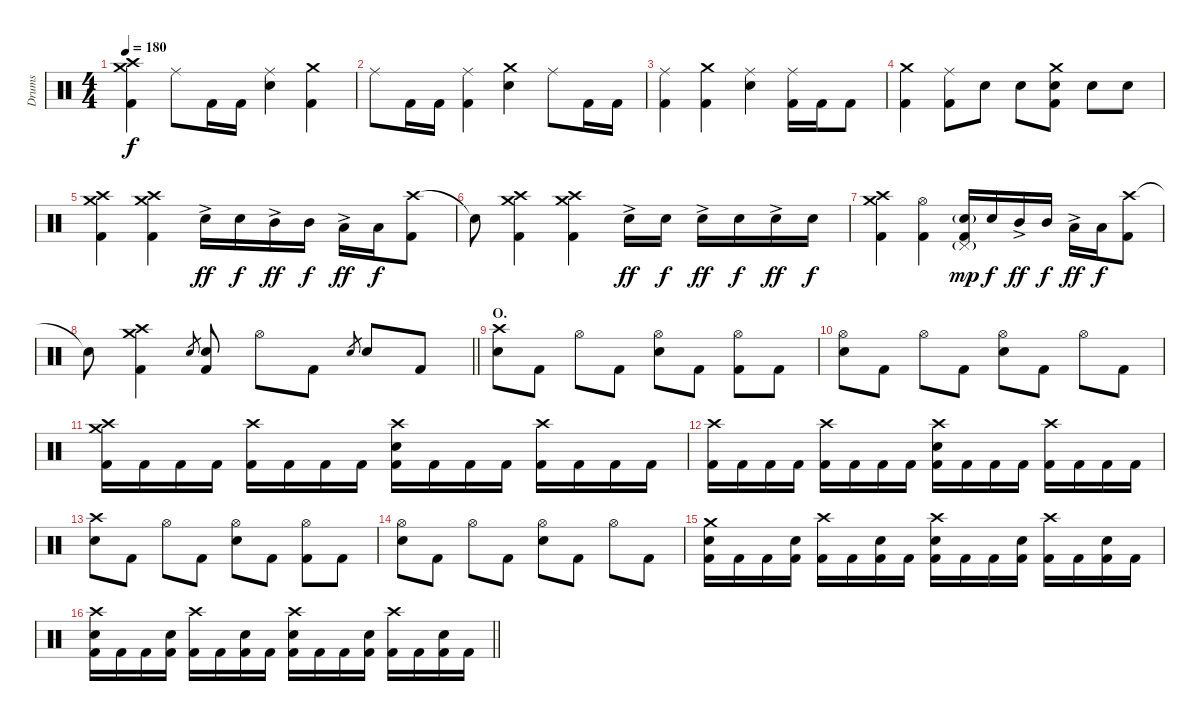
\track ("Drums" "Drums") {instrument percussion}
\staff {score}
\articulation defaults
\ts (4 4)
\tempo 180
\clef neutral
\ks c
("Crash medium (hit)" "Crash high (hit)" "Kick (hit) 2").4{dy f} "Ride (middle)".8 "Kick (hit) 2".16 "Kick (hit) 2".16 ("Ride (middle)" "Electric Snare (hit)").4 ("Crash medium (hit)" "Kick (hit) 2").4 |
"Ride (middle)".8 "Kick (hit) 2".16 "Kick (hit) 2".16 ("Ride (middle)" "Kick (hit) 2").4 ("Crash medium (hit)" "Electric Snare (hit)").4 "Ride (middle)".8 "Kick (hit) 2".16 "Kick (hit) 2".16 |
("Ride (middle)" "Kick (hit) 2").4 ("Crash medium (hit)" "Kick (hit) 2").4 ("Ride (middle)" "Electric Snare (hit)").4 ("Ride (middle)" "Kick (hit) 2").16 "Kick (hit) 2".16 "Kick (hit) 2".8 |
("Crash medium (hit)" "Kick (hit) 2").4 ("Ride (middle)" "Kick (hit) 2").8 "Electric Snare (hit)".8 "Electric Snare (hit)".8 ("Crash medium (hit)" "Electric Snare (hit)" "Kick (hit) 2").8 "Electric Snare (hit)".8 "Electric Snare (hit)".8 |
("Crash medium (hit)" "Crash high (hit)" "Kick (hit) 2").4 ("Crash medium (hit)" "Crash high (hit)" "Kick (hit) 2").4 "Electric Snare (hit)"{ac}.16{dy ff} "Electric Snare (hit)".16{dy f} "Mid Tom (hit)"{ac}.16{dy ff} "Mid Tom (hit)".16{dy f} "Low Tom (hit)"{ac}.16{dy ff} "Low Tom (hit)".16{dy f} ("Crash high (hit)" "Kick (hit) 2").8 |
"Snare (hit)"{t}.8 ("Crash medium (hit)" "Crash high (hit)" "Kick (hit) 2").4 ("Crash medium (hit)" "Crash high (hit)" "Kick (hit) 2").4 "Electric Snare (hit)"{ac}.16{dy ff} "Electric Snare (hit)".16{dy f} "Electric Snare (hit)"{ac}.16{dy ff} "Electric Snare (hit)".16{dy f} "Electric Snare (hit)"{ac}.16{dy ff} "Electric Snare (hit)".16{dy f} |
("Crash medium (hit)" "Crash high (hit)" "Kick (hit) 2").4 ("Hi-Hat (open)" "Kick (hit) 2").4 ("Pedal Hi-Hat (hit)"{g} "Electric Snare (hit)"{g} "Kick (hit) 2").16{dy mp} "Electric Snare (hit)".16{dy f} "Mid Tom (hit)"{ac}.16{dy ff} "Mid Tom (hit)".16{dy f} "Low Tom (hit)"{ac}.16{dy ff} "Low Tom (hit)".16{dy f} ("Crash high (hit)" "Kick (hit) 2").8 |
\barLineRight lightlight "Snare (hit)"{t}.8
("Crash medium (hit)" "Crash high (hit)" "Kick (hit) 2").4 "Electric Snare (hit)".8{gr} ("Electric Snare (hit)" "Kick (hit) 2").8 "Hi-Hat (open)".8 "Kick (hit) 2".8 "Electric Snare (hit)".8{gr} "Electric Snare (hit)".8 "Kick (hit) 2".8 |
\section ("" "O.")
("Crash high (hit)" "Electric Snare (hit)").8 "Kick (hit) 2".8 "Hi-Hat (open)".8 "Kick (hit) 2".8 ("Hi-Hat (open)" "Electric Snare (hit)").8 "Kick (hit) 2".8 ("Hi-Hat (open)" "Kick (hit) 2").8 "Kick (hit) 2".8 |
("Hi-Hat (open)" "Electric Snare (hit)").8 "Kick (hit) 2".8 "Hi-Hat (open)".8 "Kick (hit) 2".8 ("Hi-Hat (open)" "Electric Snare (hit)").8 "Kick (hit) 2".8 "Hi-Hat (open)".8 "Kick (hit) 2".8 |
("Crash medium (hit)" "Crash high (hit)" "Kick (hit) 2").16 "Kick (hit) 2".16 "Kick (hit) 2".16 "Kick (hit) 2".16 ("Crash high (hit)" "Kick (hit) 2").16 "Kick (hit) 2".16 "Kick (hit) 2".16 "Kick (hit) 2".16 ("Crash high (hit)" "Electric Snare (hit)" "Kick (hit) 2").16 "Kick (hit) 2".16 "Kick (hit) 2".16 "Kick (hit) 2".16 ("Crash high (hit)" "Kick (hit) 2").16 "Kick (hit) 2".16 "Kick (hit) 2".16 "Kick (hit) 2".16 |
("Crash high (hit)" "Kick (hit) 2").16 "Kick (hit) 2".16 "Kick (hit) 2".16 "Kick (hit) 2".16 ("Crash high (hit)" "Kick (hit) 2").16 "Kick (hit) 2".16 "Kick (hit) 2".16 "Kick (hit) 2".16 ("Crash high (hit)" "Electric Snare (hit)" "Kick (hit) 2").16 "Kick (hit) 2".16 "Kick (hit) 2".16 "Kick (hit) 2".16 ("Crash high (hit)" "Kick (hit) 2").16 "Kick (hit) 2".16 "Kick (hit) 2".16 "Kick (hit) 2".16 |
("Crash high (hit)" "Electric Snare (hit)").8 "Kick (hit) 2".8 "Hi-Hat (open)".8 "Kick (hit) 2".8 ("Hi-Hat (open)" "Electric Snare (hit)").8 "Kick (hit) 2".8 ("Hi-Hat (open)" "Kick (hit) 2").8 "Kick (hit) 2".8 |
("Hi-Hat (open)" "Electric Snare (hit)").8 "Kick (hit) 2".8 "Hi-Hat (open)".8 "Kick (hit) 2".8 ("Hi-Hat (open)" "Electric Snare (hit)").8 "Kick (hit) 2".8 "Hi-Hat (open)".8 "Kick (hit) 2".8 |
("Crash medium (hit)" "Electric Snare (hit)" "Kick (hit) 2").16 "Kick (hit) 2".16 "Kick (hit) 2".16 ("Electric Snare (hit)" "Kick (hit) 2").16 ("Crash high (hit)" "Kick (hit) 2").16 "Kick (hit) 2".16 ("Electric Snare (hit)" "Kick (hit) 2").16 "Kick (hit) 2".16 ("Crash high (hit)" "Electric Snare (hit)" "Kick (hit) 2").16 "Kick (hit) 2".16 "Kick (hit) 2".16 ("Electric Snare (hit)" "Kick (hit) 2").16 ("Crash high (hit)" "Kick (hit) 2").16 "Kick (hit) 2".16 ("Electric Snare (hit)" "Kick (hit) 2").16 "Kick (hit) 2".16 |
\barLineRight lightlight
("Crash high (hit)" "Electric Snare (hit)" "Kick (hit) 2").16 "Kick (hit) 2".16 "Kick (hit) 2".16 ("Electric Snare (hit)" "Kick (hit) 2").16 ("Crash high (hit)" "Kick (hit) 2").16 "Kick (hit) 2".16 ("Electric Snare (hit)" "Kick (hit) 2").16 "Kick (hit) 2".16 ("Crash high (hit)" "Electric Snare (hit)" "Kick (hit) 2").16 "Kick (hit) 2".16 "Kick (hit) 2".16 ("Electric Snare (hit)" "Kick (hit) 2").16 ("Crash high (hit)" "Kick (hit) 2").16 "Kick (hit) 2".16 ("Electric Snare (hit)" "Kick (hit) 2").16 "Kick (hit) 2".16
